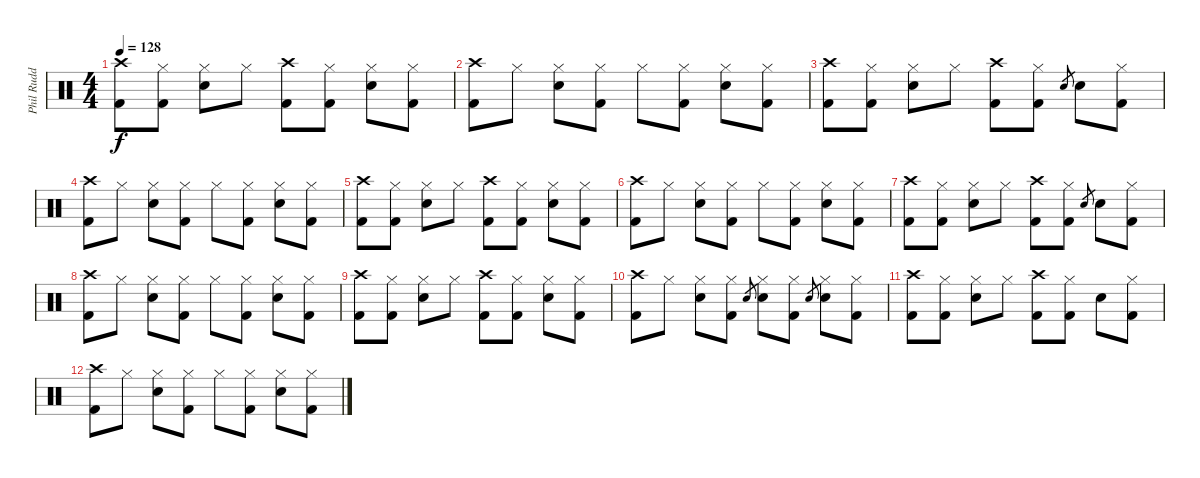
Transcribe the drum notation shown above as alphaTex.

\track ("Phil Rudd" "Phil Rudd") {instrument percussion}
\staff {score}
\articulation defaults
\ts (4 4)
\tempo 128
\clef neutral
\ks c
("Crash high (hit)" "Kick (hit) 2").8{dy f} ("Hi-Hat (closed)" "Kick (hit) 2").8 ("Hi-Hat (closed)" "Snare (hit) 2").8 "Hi-Hat (closed)".8 ("Crash high (hit)" "Kick (hit) 2").8 ("Hi-Hat (closed)" "Kick (hit) 2").8 ("Hi-Hat (closed)" "Snare (hit) 2").8 ("Hi-Hat (closed)" "Kick (hit) 2").8 |
("Crash high (hit)" "Kick (hit) 2").8 "Hi-Hat (closed)".8 ("Hi-Hat (closed)" "Snare (hit) 2").8 ("Hi-Hat (closed)" "Kick (hit) 2").8 "Hi-Hat (closed)".8 ("Hi-Hat (closed)" "Kick (hit) 2").8 ("Hi-Hat (closed)" "Snare (hit) 2").8 ("Hi-Hat (closed)" "Kick (hit) 2").8 |
("Crash high (hit)" "Kick (hit) 2").8 ("Hi-Hat (closed)" "Kick (hit) 2").8 ("Hi-Hat (closed)" "Snare (hit) 2").8 "Hi-Hat (closed)".8 ("Crash high (hit)" "Kick (hit) 2").8 ("Hi-Hat (closed)" "Kick (hit) 2").8 "Snare (hit) 2".8{gr} "Snare (hit) 2".8 ("Hi-Hat (closed)" "Kick (hit) 2").8 |
("Crash high (hit)" "Kick (hit) 2").8 "Hi-Hat (closed)".8 ("Hi-Hat (closed)" "Snare (hit) 2").8 ("Hi-Hat (closed)" "Kick (hit) 2").8 "Hi-Hat (closed)".8 ("Hi-Hat (closed)" "Kick (hit) 2").8 ("Hi-Hat (closed)" "Snare (hit) 2").8 ("Hi-Hat (closed)" "Kick (hit) 2").8 |
("Crash high (hit)" "Kick (hit) 2").8 ("Hi-Hat (closed)" "Kick (hit) 2").8 ("Hi-Hat (closed)" "Snare (hit) 2").8 "Hi-Hat (closed)".8 ("Crash high (hit)" "Kick (hit) 2").8 ("Hi-Hat (closed)" "Kick (hit) 2").8 ("Hi-Hat (closed)" "Snare (hit) 2").8 ("Hi-Hat (closed)" "Kick (hit) 2").8 |
("Crash high (hit)" "Kick (hit) 2").8 "Hi-Hat (closed)".8 ("Hi-Hat (closed)" "Snare (hit) 2").8 ("Hi-Hat (closed)" "Kick (hit) 2").8 "Hi-Hat (closed)".8 ("Hi-Hat (closed)" "Kick (hit) 2").8 ("Hi-Hat (closed)" "Snare (hit) 2").8 ("Hi-Hat (closed)" "Kick (hit) 2").8 |
("Crash high (hit)" "Kick (hit) 2").8 ("Hi-Hat (closed)" "Kick (hit) 2").8 ("Hi-Hat (closed)" "Snare (hit) 2").8 "Hi-Hat (closed)".8 ("Crash high (hit)" "Kick (hit) 2").8 ("Hi-Hat (closed)" "Kick (hit) 2").8 "Snare (hit) 2".8{gr} "Snare (hit) 2".8 ("Hi-Hat (closed)" "Kick (hit) 2").8 |
("Crash high (hit)" "Kick (hit) 2").8 "Hi-Hat (closed)".8 ("Hi-Hat (closed)" "Snare (hit) 2").8 ("Hi-Hat (closed)" "Kick (hit) 2").8 "Hi-Hat (closed)".8 ("Hi-Hat (closed)" "Kick (hit) 2").8 ("Hi-Hat (closed)" "Snare (hit) 2").8 ("Hi-Hat (closed)" "Kick (hit) 2").8 |
("Crash high (hit)" "Kick (hit) 2").8 ("Hi-Hat (closed)" "Kick (hit) 2").8 ("Hi-Hat (closed)" "Snare (hit) 2").8 "Hi-Hat (closed)".8 ("Crash high (hit)" "Kick (hit) 2").8 ("Hi-Hat (closed)" "Kick (hit) 2").8 ("Hi-Hat (closed)" "Snare (hit) 2").8 ("Hi-Hat (closed)" "Kick (hit) 2").8 |
("Crash high (hit)" "Kick (hit) 2").8 "Hi-Hat (closed)".8 ("Hi-Hat (closed)" "Snare (hit) 2").8 ("Hi-Hat (closed)" "Kick (hit) 2").8 "Snare (hit) 2".8{gr} ("Hi-Hat (closed)" "Snare (hit) 2").8 ("Hi-Hat (closed)" "Kick (hit) 2").8 "Snare (hit) 2".8{gr} ("Hi-Hat (closed)" "Snare (hit) 2").8 ("Hi-Hat (closed)" "Kick (hit) 2").8 |
("Crash high (hit)" "Kick (hit) 2").8 ("Hi-Hat (closed)" "Kick (hit) 2").8 ("Hi-Hat (closed)" "Snare (hit) 2").8 "Hi-Hat (closed)".8 ("Crash high (hit)" "Kick (hit) 2").8 ("Hi-Hat (closed)" "Kick (hit) 2").8 "Snare (hit) 2".8 ("Hi-Hat (closed)" "Kick (hit) 2").8 |
("Crash high (hit)" "Kick (hit) 2").8 "Hi-Hat (closed)".8 ("Hi-Hat (closed)" "Snare (hit) 2").8 ("Hi-Hat (closed)" "Kick (hit) 2").8 "Hi-Hat (closed)".8 ("Hi-Hat (closed)" "Kick (hit) 2").8 ("Hi-Hat (closed)" "Snare (hit) 2").8 ("Hi-Hat (closed)" "Kick (hit) 2").8
